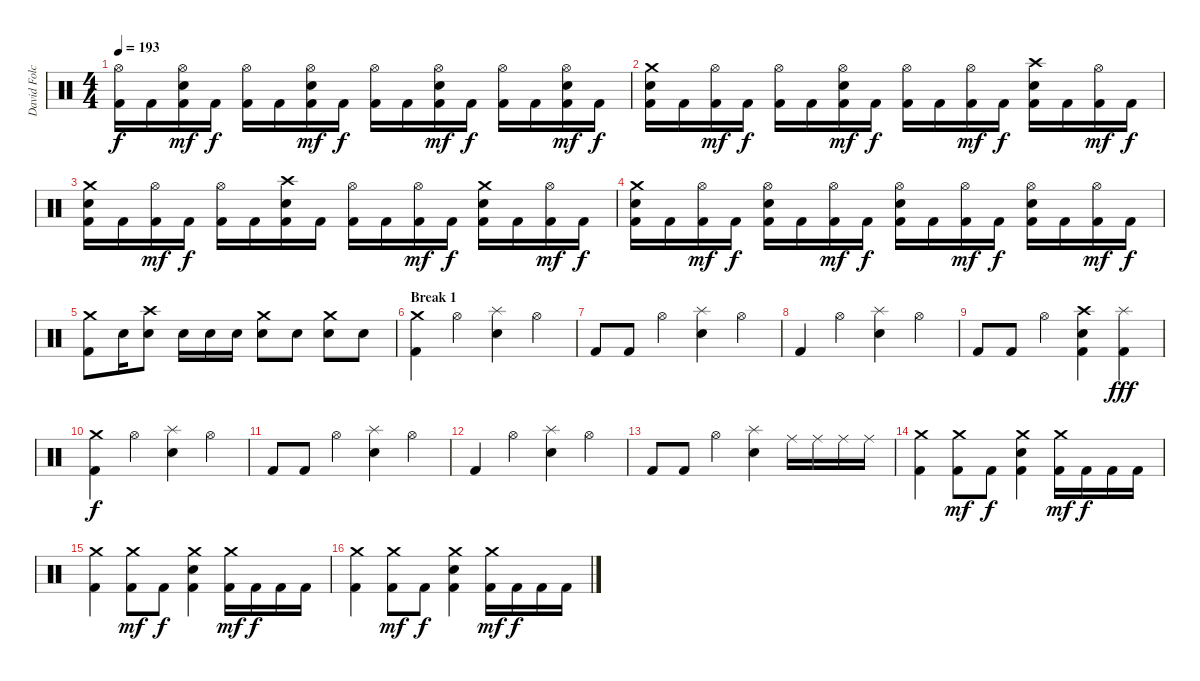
\track ("David Folchitto" "David Folc") {instrument percussion}
\staff {score}
\articulation defaults
\ts (4 4)
\tempo 193
\clef neutral
\ks c
("Hi-Hat (open)" "Kick (hit) 2").16{dy f} "Kick (hit) 2".16 ("Hi-Hat (open)" "Snare (hit) 2" "Kick (hit) 2").16{dy mf} "Kick (hit) 2".16{dy f} ("Hi-Hat (open)" "Kick (hit) 2").16 "Kick (hit) 2".16 ("Hi-Hat (open)" "Snare (hit) 2" "Kick (hit) 2").16{dy mf} "Kick (hit) 2".16{dy f} ("Hi-Hat (open)" "Kick (hit) 2").16 "Kick (hit) 2".16 ("Hi-Hat (open)" "Snare (hit) 2" "Kick (hit) 2").16{dy mf} "Kick (hit) 2".16{dy f} ("Hi-Hat (open)" "Kick (hit) 2").16 "Kick (hit) 2".16 ("Hi-Hat (open)" "Snare (hit) 2" "Kick (hit) 2").16{dy mf} "Kick (hit) 2".16{dy f} |
("Crash medium (hit)" "Snare (hit) 2" "Kick (hit) 2").16 "Kick (hit) 2".16 ("Hi-Hat (open)" "Kick (hit) 2").16{dy mf} "Kick (hit) 2".16{dy f} ("Hi-Hat (open)" "Kick (hit) 2").16 "Kick (hit) 2".16 ("Hi-Hat (open)" "Snare (hit) 2" "Kick (hit) 2").16{dy mf} "Kick (hit) 2".16{dy f} ("Hi-Hat (open)" "Kick (hit) 2").16 "Kick (hit) 2".16 ("Hi-Hat (open)" "Kick (hit) 2").16{dy mf} "Kick (hit) 2".16{dy f} ("Crash high (hit)" "Snare (hit) 2" "Kick (hit) 2").16 "Kick (hit) 2".16 ("Hi-Hat (open)" "Kick (hit) 2").16{dy mf} "Kick (hit) 2".16{dy f} |
("Crash medium (hit)" "Snare (hit) 2" "Kick (hit) 2").16 "Kick (hit) 2".16 ("Hi-Hat (open)" "Kick (hit) 2").16{dy mf} "Kick (hit) 2".16{dy f} ("Hi-Hat (open)" "Kick (hit) 2").16 "Kick (hit) 2".16 ("Crash high (hit)" "Snare (hit) 2" "Kick (hit) 2").16 "Kick (hit) 2".16 ("Hi-Hat (open)" "Kick (hit) 2").16 "Kick (hit) 2".16 ("Hi-Hat (open)" "Kick (hit) 2").16{dy mf} "Kick (hit) 2".16{dy f} ("Crash medium (hit)" "Snare (hit) 2" "Kick (hit) 2").16 "Kick (hit) 2".16 ("Hi-Hat (open)" "Kick (hit) 2").16{dy mf} "Kick (hit) 2".16{dy f} |
("Crash medium (hit)" "Snare (hit) 2" "Kick (hit) 2").16 "Kick (hit) 2".16 ("Hi-Hat (open)" "Kick (hit) 2").16{dy mf} "Kick (hit) 2".16{dy f} ("Hi-Hat (open)" "Snare (hit) 2" "Kick (hit) 2").16 "Kick (hit) 2".16 ("Hi-Hat (open)" "Kick (hit) 2").16{dy mf} "Kick (hit) 2".16{dy f} ("Hi-Hat (open)" "Snare (hit) 2" "Kick (hit) 2").16 "Kick (hit) 2".16 ("Hi-Hat (open)" "Kick (hit) 2").16{dy mf} "Kick (hit) 2".16{dy f} ("Hi-Hat (open)" "Snare (hit) 2" "Kick (hit) 2").16 "Kick (hit) 2".16 ("Hi-Hat (open)" "Kick (hit) 2").16{dy mf} "Kick (hit) 2".16{dy f} |
("Crash medium (hit)" "Kick (hit) 2").8 "Snare (hit) 2".16 ("Crash high (hit)" "Snare (hit) 2").8 "Snare (hit) 2".16 "Snare (hit) 2".16 "Snare (hit) 2".16 ("Crash medium (hit)" "Snare (hit) 2").8 "Snare (hit) 2".8 ("Crash medium (hit)" "Snare (hit) 2").8 "Snare (hit) 2".8 |
\section ("" "Break 1")
("Crash medium (hit)" "Kick (hit) 2").4 "Hi-Hat (open)".4 ("Snare (hit) 2" "Splash (hit)").4 "Hi-Hat (open)".4 |
"Kick (hit) 2".8 "Kick (hit) 2".8 "Hi-Hat (open)".4 ("Snare (hit) 2" "Splash (hit)").4 "Hi-Hat (open)".4 |
"Kick (hit) 2".4 "Hi-Hat (open)".4 ("Snare (hit) 2" "Splash (hit)").4 "Hi-Hat (open)".4 |
"Kick (hit) 2".8 "Kick (hit) 2".8 "Hi-Hat (open)".4 ("Crash high (hit)" "Snare (hit) 2" "Kick (hit) 2").4 ("Splash (hit)" "Kick (hit) 2").4{dy fff} |
("Crash medium (hit)" "Kick (hit) 2").4{dy f} "Hi-Hat (open)".4 ("Snare (hit) 2" "Splash (hit)").4 "Hi-Hat (open)".4 |
"Kick (hit) 2".8 "Kick (hit) 2".8 "Hi-Hat (open)".4 ("Snare (hit) 2" "Splash (hit)").4 "Hi-Hat (open)".4 |
"Kick (hit) 2".4 "Hi-Hat (open)".4 ("Snare (hit) 2" "Splash (hit)").4 "Hi-Hat (open)".4 |
"Kick (hit) 2".8 "Kick (hit) 2".8 "Hi-Hat (open)".4 ("Snare (hit) 2" "Splash (hit)").4 "Ride (middle)".16 "Ride (middle)".16 "Ride (middle)".16 "Ride (middle)".16 |
("Crash medium (hit)" "Kick (hit) 2").4 ("Crash medium (hit)" "Kick (hit) 2").8{dy mf} "Kick (hit) 2".8{dy f} ("Crash medium (hit)" "Snare (hit) 2" "Kick (hit) 2").4 ("Crash medium (hit)" "Kick (hit) 2").16{dy mf} "Kick (hit) 2".16{dy f} "Kick (hit) 2".16 "Kick (hit) 2".16 |
("Crash medium (hit)" "Kick (hit) 2").4 ("Crash medium (hit)" "Kick (hit) 2").8{dy mf} "Kick (hit) 2".8{dy f} ("Crash medium (hit)" "Snare (hit) 2" "Kick (hit) 2").4 ("Crash medium (hit)" "Kick (hit) 2").16{dy mf} "Kick (hit) 2".16{dy f} "Kick (hit) 2".16 "Kick (hit) 2".16 |
("Crash medium (hit)" "Kick (hit) 2").4 ("Crash medium (hit)" "Kick (hit) 2").8{dy mf} "Kick (hit) 2".8{dy f} ("Crash medium (hit)" "Snare (hit) 2" "Kick (hit) 2").4 ("Crash medium (hit)" "Kick (hit) 2").16{dy mf} "Kick (hit) 2".16{dy f} "Kick (hit) 2".16 "Kick (hit) 2".16
